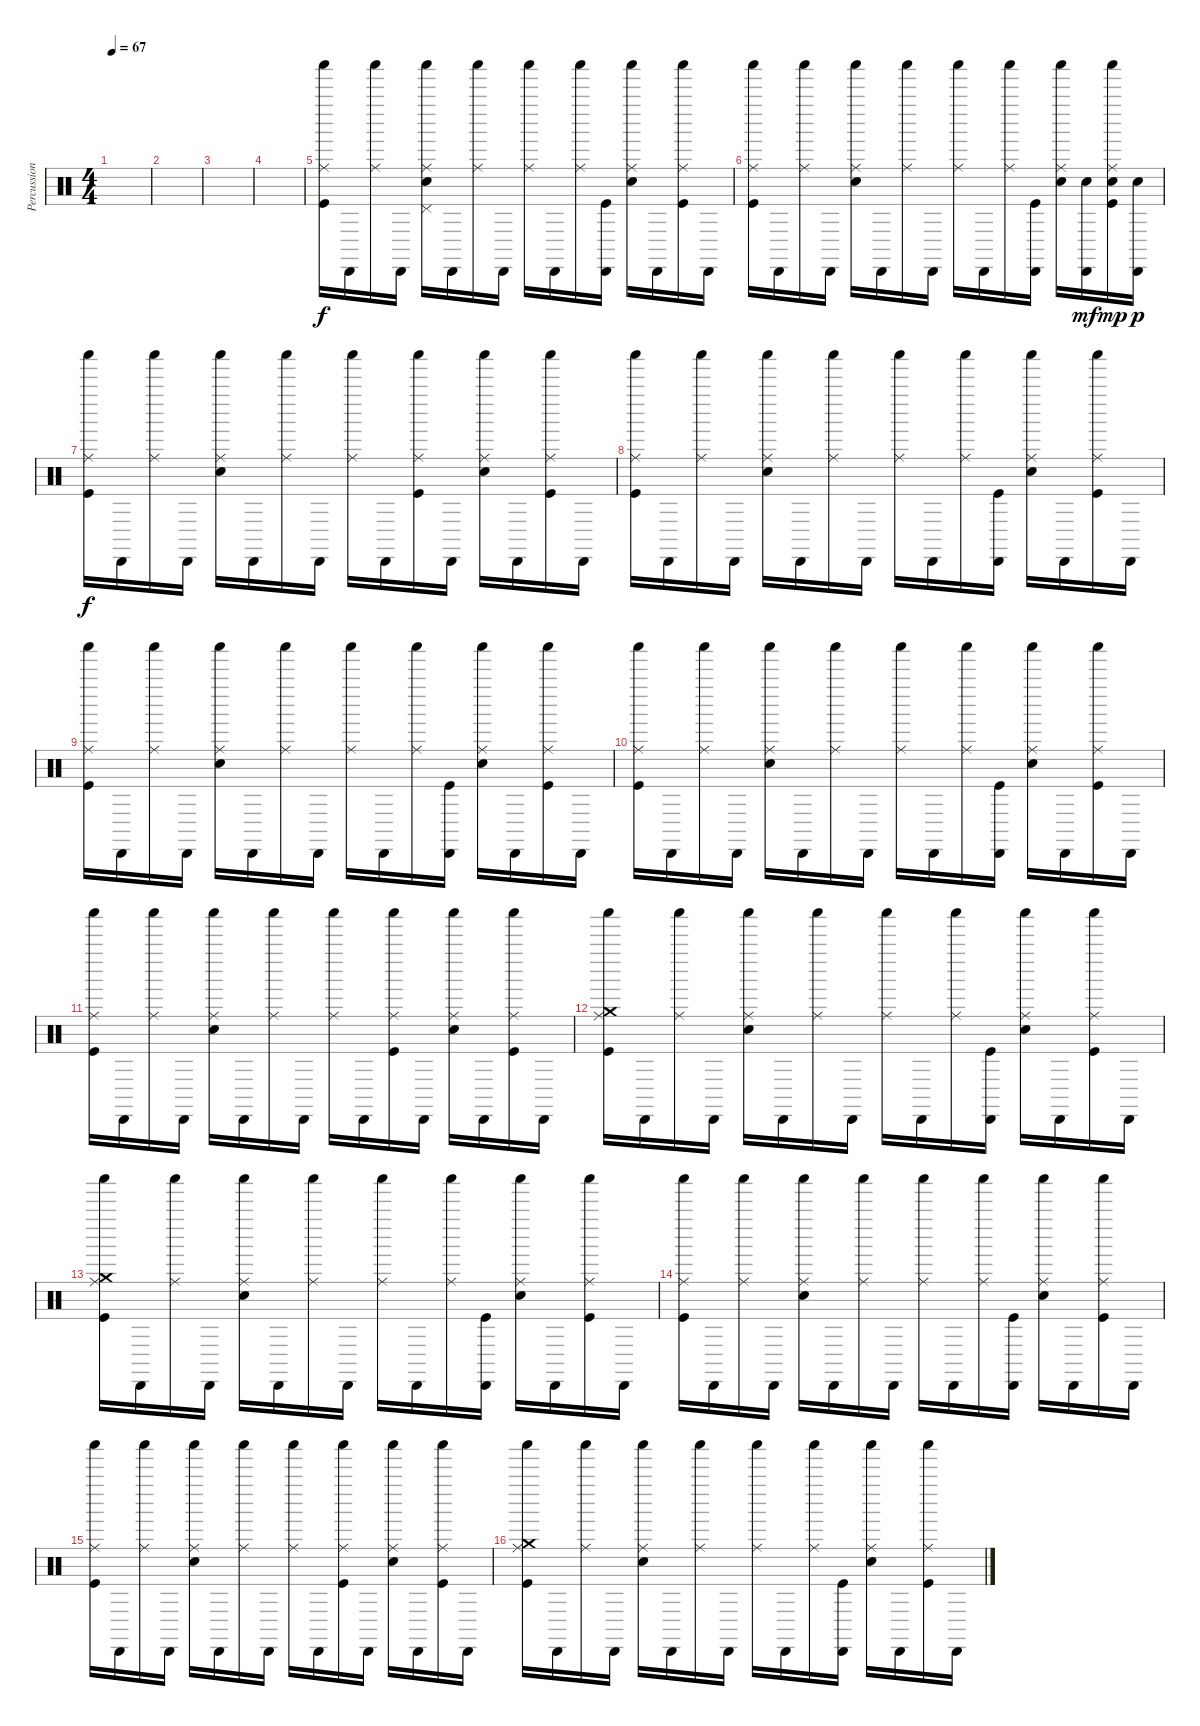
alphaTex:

\track ("Percussions" "Percussion") {instrument percussion}
\staff {score}
\articulation defaults
\ts (4 4)
\section ("" "")
\tempo 67
\clef neutral
\ks c
|
|
|
|
\section ("" "")
("Shaker (hit)" "Ride (middle)" "Kick (hit)").16 "Cabasa (hit)".16 ("Shaker (hit)" "Ride (middle)").16 "Cabasa (hit)".16 ("Shaker (hit)" "Ride (middle)" "Pedal Hi-Hat (hit)" "Snare (hit) 2").16 "Cabasa (hit)".16 ("Shaker (hit)" "Ride (middle)").16 "Cabasa (hit)".16 ("Shaker (hit)" "Ride (middle)").16 "Cabasa (hit)".16 ("Shaker (hit)" "Ride (middle)").16 ("Cabasa (hit)" "Kick (hit)").16 ("Shaker (hit)" "Ride (middle)" "Snare (hit) 2").16 "Cabasa (hit)".16 ("Shaker (hit)" "Ride (middle)" "Kick (hit)").16 "Cabasa (hit)".16 |
("Shaker (hit)" "Ride (middle)" "Kick (hit)").16 "Cabasa (hit)".16 ("Shaker (hit)" "Ride (middle)").16 "Cabasa (hit)".16 ("Shaker (hit)" "Ride (middle)" "Snare (hit) 2").16 "Cabasa (hit)".16 ("Shaker (hit)" "Ride (middle)").16 "Cabasa (hit)".16 ("Shaker (hit)" "Ride (middle)").16 "Cabasa (hit)".16 ("Shaker (hit)" "Ride (middle)").16 ("Cabasa (hit)" "Kick (hit)").16 ("Shaker (hit)" "Ride (middle)" "Snare (hit) 2").16 ("Cabasa (hit)" "Snare (hit) 2").16{dy mf} ("Shaker (hit)" "Ride (middle)" "Snare (hit) 2" "Kick (hit)").16{dy mp} ("Cabasa (hit)" "Snare (hit) 2").16{dy p} |
("Shaker (hit)" "Ride (middle)" "Kick (hit)").16{dy f} "Cabasa (hit)".16 ("Shaker (hit)" "Ride (middle)").16 "Cabasa (hit)".16 ("Shaker (hit)" "Ride (middle)" "Snare (hit) 2").16 "Cabasa (hit)".16 ("Shaker (hit)" "Ride (middle)").16 "Cabasa (hit)".16 ("Shaker (hit)" "Ride (middle)").16 "Cabasa (hit)".16 ("Shaker (hit)" "Ride (middle)" "Kick (hit)").16 "Cabasa (hit)".16 ("Shaker (hit)" "Ride (middle)" "Snare (hit) 2").16 "Cabasa (hit)".16 ("Shaker (hit)" "Ride (middle)" "Kick (hit)").16 "Cabasa (hit)".16 |
("Shaker (hit)" "Ride (middle)" "Kick (hit)").16 "Cabasa (hit)".16 ("Shaker (hit)" "Ride (middle)").16 "Cabasa (hit)".16 ("Shaker (hit)" "Ride (middle)" "Snare (hit) 2").16 "Cabasa (hit)".16 ("Shaker (hit)" "Ride (middle)").16 "Cabasa (hit)".16 ("Shaker (hit)" "Ride (middle)").16 "Cabasa (hit)".16 ("Shaker (hit)" "Ride (middle)").16 ("Cabasa (hit)" "Kick (hit)").16 ("Shaker (hit)" "Ride (middle)" "Snare (hit) 2").16 "Cabasa (hit)".16 ("Shaker (hit)" "Ride (middle)" "Kick (hit)").16 "Cabasa (hit)".16 |
\section ("" "")
("Shaker (hit)" "Ride (middle)" "Kick (hit)").16 "Cabasa (hit)".16 ("Shaker (hit)" "Ride (middle)").16 "Cabasa (hit)".16 ("Shaker (hit)" "Ride (middle)" "Snare (hit) 2").16 "Cabasa (hit)".16 ("Shaker (hit)" "Ride (middle)").16 "Cabasa (hit)".16 ("Shaker (hit)" "Ride (middle)").16 "Cabasa (hit)".16 ("Shaker (hit)" "Ride (middle)").16 ("Cabasa (hit)" "Kick (hit)").16 ("Shaker (hit)" "Ride (middle)" "Snare (hit) 2").16 "Cabasa (hit)".16 ("Shaker (hit)" "Ride (middle)" "Kick (hit)").16 "Cabasa (hit)".16 |
("Shaker (hit)" "Ride (middle)" "Kick (hit)").16 "Cabasa (hit)".16 ("Shaker (hit)" "Ride (middle)").16 "Cabasa (hit)".16 ("Shaker (hit)" "Ride (middle)" "Snare (hit) 2").16 "Cabasa (hit)".16 ("Shaker (hit)" "Ride (middle)").16 "Cabasa (hit)".16 ("Shaker (hit)" "Ride (middle)").16 "Cabasa (hit)".16 ("Shaker (hit)" "Ride (middle)").16 ("Cabasa (hit)" "Kick (hit)").16 ("Shaker (hit)" "Ride (middle)" "Snare (hit) 2").16 "Cabasa (hit)".16 ("Shaker (hit)" "Ride (middle)" "Kick (hit)").16 "Cabasa (hit)".16 |
("Shaker (hit)" "Ride (middle)" "Kick (hit)").16 "Cabasa (hit)".16 ("Shaker (hit)" "Ride (middle)").16 "Cabasa (hit)".16 ("Shaker (hit)" "Ride (middle)" "Snare (hit) 2").16 "Cabasa (hit)".16 ("Shaker (hit)" "Ride (middle)").16 "Cabasa (hit)".16 ("Shaker (hit)" "Ride (middle)").16 "Cabasa (hit)".16 ("Shaker (hit)" "Ride (middle)" "Kick (hit)").16 "Cabasa (hit)".16 ("Shaker (hit)" "Ride (middle)" "Snare (hit) 2").16 "Cabasa (hit)".16 ("Shaker (hit)" "Ride (middle)" "Kick (hit)").16 "Cabasa (hit)".16 |
("Shaker (hit)" "Ride (middle)" "Crash medium (hit)" "Kick (hit)").16 "Cabasa (hit)".16 ("Shaker (hit)" "Ride (middle)").16 "Cabasa (hit)".16 ("Shaker (hit)" "Ride (middle)" "Snare (hit) 2").16 "Cabasa (hit)".16 ("Shaker (hit)" "Ride (middle)").16 "Cabasa (hit)".16 ("Shaker (hit)" "Ride (middle)").16 "Cabasa (hit)".16 ("Shaker (hit)" "Ride (middle)").16 ("Cabasa (hit)" "Kick (hit)").16 ("Shaker (hit)" "Ride (middle)" "Snare (hit) 2").16 "Cabasa (hit)".16 ("Shaker (hit)" "Ride (middle)" "Kick (hit)").16 "Cabasa (hit)".16 |
("Shaker (hit)" "Ride (middle)" "Crash medium (hit)" "Kick (hit)").16 "Cabasa (hit)".16 ("Shaker (hit)" "Ride (middle)").16 "Cabasa (hit)".16 ("Shaker (hit)" "Ride (middle)" "Snare (hit) 2").16 "Cabasa (hit)".16 ("Shaker (hit)" "Ride (middle)").16 "Cabasa (hit)".16 ("Shaker (hit)" "Ride (middle)").16 "Cabasa (hit)".16 ("Shaker (hit)" "Ride (middle)").16 ("Cabasa (hit)" "Kick (hit)").16 ("Shaker (hit)" "Ride (middle)" "Snare (hit) 2").16 "Cabasa (hit)".16 ("Shaker (hit)" "Ride (middle)" "Kick (hit)").16 "Cabasa (hit)".16 |
("Shaker (hit)" "Ride (middle)" "Kick (hit)").16 "Cabasa (hit)".16 ("Shaker (hit)" "Ride (middle)").16 "Cabasa (hit)".16 ("Shaker (hit)" "Ride (middle)" "Snare (hit) 2").16 "Cabasa (hit)".16 ("Shaker (hit)" "Ride (middle)").16 "Cabasa (hit)".16 ("Shaker (hit)" "Ride (middle)").16 "Cabasa (hit)".16 ("Shaker (hit)" "Ride (middle)").16 ("Cabasa (hit)" "Kick (hit)").16 ("Shaker (hit)" "Ride (middle)" "Snare (hit) 2").16 "Cabasa (hit)".16 ("Shaker (hit)" "Ride (middle)" "Kick (hit)").16 "Cabasa (hit)".16 |
("Shaker (hit)" "Ride (middle)" "Kick (hit)").16 "Cabasa (hit)".16 ("Shaker (hit)" "Ride (middle)").16 "Cabasa (hit)".16 ("Shaker (hit)" "Ride (middle)" "Snare (hit) 2").16 "Cabasa (hit)".16 ("Shaker (hit)" "Ride (middle)").16 "Cabasa (hit)".16 ("Shaker (hit)" "Ride (middle)").16 "Cabasa (hit)".16 ("Shaker (hit)" "Ride (middle)" "Kick (hit)").16 "Cabasa (hit)".16 ("Shaker (hit)" "Ride (middle)" "Snare (hit) 2").16 "Cabasa (hit)".16 ("Shaker (hit)" "Ride (middle)" "Kick (hit)").16 "Cabasa (hit)".16 |
("Shaker (hit)" "Ride (middle)" "Crash medium (hit)" "Kick (hit)").16 "Cabasa (hit)".16 ("Shaker (hit)" "Ride (middle)").16 "Cabasa (hit)".16 ("Shaker (hit)" "Ride (middle)" "Snare (hit) 2").16 "Cabasa (hit)".16 ("Shaker (hit)" "Ride (middle)").16 "Cabasa (hit)".16 ("Shaker (hit)" "Ride (middle)").16 "Cabasa (hit)".16 ("Shaker (hit)" "Ride (middle)").16 ("Cabasa (hit)" "Kick (hit)").16 ("Shaker (hit)" "Ride (middle)" "Snare (hit) 2").16 "Cabasa (hit)".16 ("Shaker (hit)" "Ride (middle)" "Kick (hit)").16 "Cabasa (hit)".16
